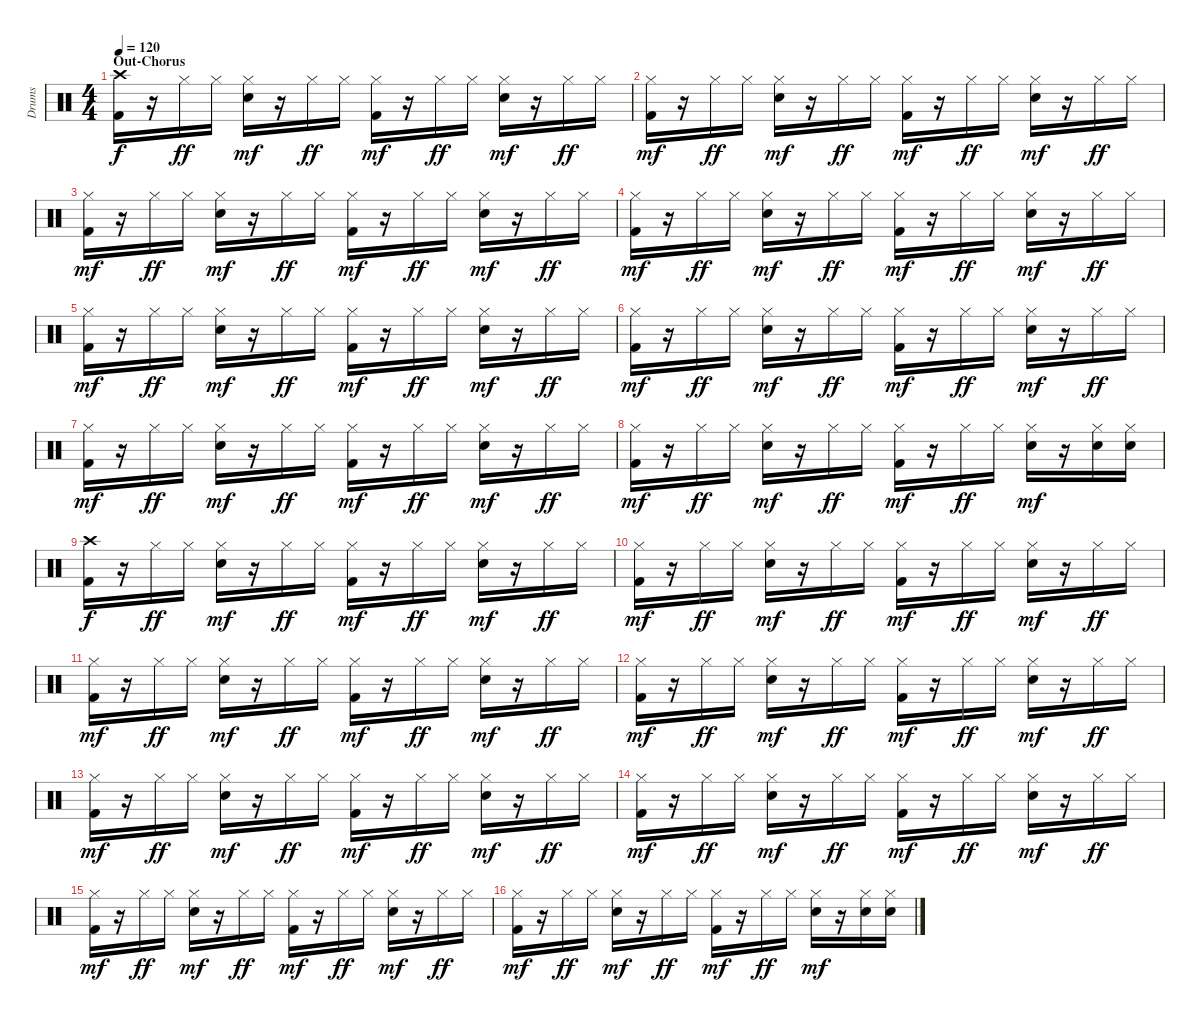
\track ("Drums" "Drums") {instrument percussion}
\staff {score}
\articulation defaults
\ts (4 4)
\section ("" "Out-Chorus")
\tempo 120
\clef neutral
\ks c
("Crash high (hit)" "Kick (hit) 2").16{dy f} r.16 "Hi-Hat (closed)".16{dy ff} "Hi-Hat (closed)".16 ("Hi-Hat (closed)" "Electric Snare (hit)").16{dy mf} r.16 "Hi-Hat (closed)".16{dy ff} "Hi-Hat (closed)".16 ("Hi-Hat (closed)" "Kick (hit) 2").16{dy mf} r.16 "Hi-Hat (closed)".16{dy ff} "Hi-Hat (closed)".16 ("Hi-Hat (closed)" "Electric Snare (hit)").16{dy mf} r.16 "Hi-Hat (closed)".16{dy ff} "Hi-Hat (closed)".16 |
("Hi-Hat (closed)" "Kick (hit) 2").16{dy mf} r.16 "Hi-Hat (closed)".16{dy ff} "Hi-Hat (closed)".16 ("Hi-Hat (closed)" "Electric Snare (hit)").16{dy mf} r.16 "Hi-Hat (closed)".16{dy ff} "Hi-Hat (closed)".16 ("Hi-Hat (closed)" "Kick (hit) 2").16{dy mf} r.16 "Hi-Hat (closed)".16{dy ff} "Hi-Hat (closed)".16 ("Hi-Hat (closed)" "Electric Snare (hit)").16{dy mf} r.16 "Hi-Hat (closed)".16{dy ff} "Hi-Hat (closed)".16 |
("Hi-Hat (closed)" "Kick (hit) 2").16{dy mf} r.16 "Hi-Hat (closed)".16{dy ff} "Hi-Hat (closed)".16 ("Hi-Hat (closed)" "Electric Snare (hit)").16{dy mf} r.16 "Hi-Hat (closed)".16{dy ff} "Hi-Hat (closed)".16 ("Hi-Hat (closed)" "Kick (hit) 2").16{dy mf} r.16 "Hi-Hat (closed)".16{dy ff} "Hi-Hat (closed)".16 ("Hi-Hat (closed)" "Electric Snare (hit)").16{dy mf} r.16 "Hi-Hat (closed)".16{dy ff} "Hi-Hat (closed)".16 |
("Hi-Hat (closed)" "Kick (hit) 2").16{dy mf} r.16 "Hi-Hat (closed)".16{dy ff} "Hi-Hat (closed)".16 ("Hi-Hat (closed)" "Electric Snare (hit)").16{dy mf} r.16 "Hi-Hat (closed)".16{dy ff} "Hi-Hat (closed)".16 ("Hi-Hat (closed)" "Kick (hit) 2").16{dy mf} r.16 "Hi-Hat (closed)".16{dy ff} "Hi-Hat (closed)".16 ("Hi-Hat (closed)" "Electric Snare (hit)").16{dy mf} r.16 "Hi-Hat (closed)".16{dy ff} "Hi-Hat (closed)".16 |
("Hi-Hat (closed)" "Kick (hit) 2").16{dy mf} r.16 "Hi-Hat (closed)".16{dy ff} "Hi-Hat (closed)".16 ("Hi-Hat (closed)" "Electric Snare (hit)").16{dy mf} r.16 "Hi-Hat (closed)".16{dy ff} "Hi-Hat (closed)".16 ("Hi-Hat (closed)" "Kick (hit) 2").16{dy mf} r.16 "Hi-Hat (closed)".16{dy ff} "Hi-Hat (closed)".16 ("Hi-Hat (closed)" "Electric Snare (hit)").16{dy mf} r.16 "Hi-Hat (closed)".16{dy ff} "Hi-Hat (closed)".16 |
("Hi-Hat (closed)" "Kick (hit) 2").16{dy mf} r.16 "Hi-Hat (closed)".16{dy ff} "Hi-Hat (closed)".16 ("Hi-Hat (closed)" "Electric Snare (hit)").16{dy mf} r.16 "Hi-Hat (closed)".16{dy ff} "Hi-Hat (closed)".16 ("Hi-Hat (closed)" "Kick (hit) 2").16{dy mf} r.16 "Hi-Hat (closed)".16{dy ff} "Hi-Hat (closed)".16 ("Hi-Hat (closed)" "Electric Snare (hit)").16{dy mf} r.16 "Hi-Hat (closed)".16{dy ff} "Hi-Hat (closed)".16 |
("Hi-Hat (closed)" "Kick (hit) 2").16{dy mf} r.16 "Hi-Hat (closed)".16{dy ff} "Hi-Hat (closed)".16 ("Hi-Hat (closed)" "Electric Snare (hit)").16{dy mf} r.16 "Hi-Hat (closed)".16{dy ff} "Hi-Hat (closed)".16 ("Hi-Hat (closed)" "Kick (hit) 2").16{dy mf} r.16 "Hi-Hat (closed)".16{dy ff} "Hi-Hat (closed)".16 ("Hi-Hat (closed)" "Electric Snare (hit)").16{dy mf} r.16 "Hi-Hat (closed)".16{dy ff} "Hi-Hat (closed)".16 |
("Hi-Hat (closed)" "Kick (hit) 2").16{dy mf} r.16 "Hi-Hat (closed)".16{dy ff} "Hi-Hat (closed)".16 ("Hi-Hat (closed)" "Electric Snare (hit)").16{dy mf} r.16 "Hi-Hat (closed)".16{dy ff} "Hi-Hat (closed)".16 ("Hi-Hat (closed)" "Kick (hit) 2").16{dy mf} r.16 "Hi-Hat (closed)".16{dy ff} "Hi-Hat (closed)".16 ("Hi-Hat (closed)" "Electric Snare (hit)").16{dy mf} r.16 ("Hi-Hat (closed)" "Electric Snare (hit)").16 ("Hi-Hat (closed)" "Electric Snare (hit)").16 |
("Crash high (hit)" "Kick (hit) 2").16{dy f} r.16 "Hi-Hat (closed)".16{dy ff} "Hi-Hat (closed)".16 ("Hi-Hat (closed)" "Electric Snare (hit)").16{dy mf} r.16 "Hi-Hat (closed)".16{dy ff} "Hi-Hat (closed)".16 ("Hi-Hat (closed)" "Kick (hit) 2").16{dy mf} r.16 "Hi-Hat (closed)".16{dy ff} "Hi-Hat (closed)".16 ("Hi-Hat (closed)" "Electric Snare (hit)").16{dy mf} r.16 "Hi-Hat (closed)".16{dy ff} "Hi-Hat (closed)".16 |
("Hi-Hat (closed)" "Kick (hit) 2").16{dy mf} r.16 "Hi-Hat (closed)".16{dy ff} "Hi-Hat (closed)".16 ("Hi-Hat (closed)" "Electric Snare (hit)").16{dy mf} r.16 "Hi-Hat (closed)".16{dy ff} "Hi-Hat (closed)".16 ("Hi-Hat (closed)" "Kick (hit) 2").16{dy mf} r.16 "Hi-Hat (closed)".16{dy ff} "Hi-Hat (closed)".16 ("Hi-Hat (closed)" "Electric Snare (hit)").16{dy mf} r.16 "Hi-Hat (closed)".16{dy ff} "Hi-Hat (closed)".16 |
("Hi-Hat (closed)" "Kick (hit) 2").16{dy mf} r.16 "Hi-Hat (closed)".16{dy ff} "Hi-Hat (closed)".16 ("Hi-Hat (closed)" "Electric Snare (hit)").16{dy mf} r.16 "Hi-Hat (closed)".16{dy ff} "Hi-Hat (closed)".16 ("Hi-Hat (closed)" "Kick (hit) 2").16{dy mf} r.16 "Hi-Hat (closed)".16{dy ff} "Hi-Hat (closed)".16 ("Hi-Hat (closed)" "Electric Snare (hit)").16{dy mf} r.16 "Hi-Hat (closed)".16{dy ff} "Hi-Hat (closed)".16 |
("Hi-Hat (closed)" "Kick (hit) 2").16{dy mf} r.16 "Hi-Hat (closed)".16{dy ff} "Hi-Hat (closed)".16 ("Hi-Hat (closed)" "Electric Snare (hit)").16{dy mf} r.16 "Hi-Hat (closed)".16{dy ff} "Hi-Hat (closed)".16 ("Hi-Hat (closed)" "Kick (hit) 2").16{dy mf} r.16 "Hi-Hat (closed)".16{dy ff} "Hi-Hat (closed)".16 ("Hi-Hat (closed)" "Electric Snare (hit)").16{dy mf} r.16 "Hi-Hat (closed)".16{dy ff} "Hi-Hat (closed)".16 |
("Hi-Hat (closed)" "Kick (hit) 2").16{dy mf} r.16 "Hi-Hat (closed)".16{dy ff} "Hi-Hat (closed)".16 ("Hi-Hat (closed)" "Electric Snare (hit)").16{dy mf} r.16 "Hi-Hat (closed)".16{dy ff} "Hi-Hat (closed)".16 ("Hi-Hat (closed)" "Kick (hit) 2").16{dy mf} r.16 "Hi-Hat (closed)".16{dy ff} "Hi-Hat (closed)".16 ("Hi-Hat (closed)" "Electric Snare (hit)").16{dy mf} r.16 "Hi-Hat (closed)".16{dy ff} "Hi-Hat (closed)".16 |
("Hi-Hat (closed)" "Kick (hit) 2").16{dy mf} r.16 "Hi-Hat (closed)".16{dy ff} "Hi-Hat (closed)".16 ("Hi-Hat (closed)" "Electric Snare (hit)").16{dy mf} r.16 "Hi-Hat (closed)".16{dy ff} "Hi-Hat (closed)".16 ("Hi-Hat (closed)" "Kick (hit) 2").16{dy mf} r.16 "Hi-Hat (closed)".16{dy ff} "Hi-Hat (closed)".16 ("Hi-Hat (closed)" "Electric Snare (hit)").16{dy mf} r.16 "Hi-Hat (closed)".16{dy ff} "Hi-Hat (closed)".16 |
("Hi-Hat (closed)" "Kick (hit) 2").16{dy mf} r.16 "Hi-Hat (closed)".16{dy ff} "Hi-Hat (closed)".16 ("Hi-Hat (closed)" "Electric Snare (hit)").16{dy mf} r.16 "Hi-Hat (closed)".16{dy ff} "Hi-Hat (closed)".16 ("Hi-Hat (closed)" "Kick (hit) 2").16{dy mf} r.16 "Hi-Hat (closed)".16{dy ff} "Hi-Hat (closed)".16 ("Hi-Hat (closed)" "Electric Snare (hit)").16{dy mf} r.16 "Hi-Hat (closed)".16{dy ff} "Hi-Hat (closed)".16 |
("Hi-Hat (closed)" "Kick (hit) 2").16{dy mf} r.16 "Hi-Hat (closed)".16{dy ff} "Hi-Hat (closed)".16 ("Hi-Hat (closed)" "Electric Snare (hit)").16{dy mf} r.16 "Hi-Hat (closed)".16{dy ff} "Hi-Hat (closed)".16 ("Hi-Hat (closed)" "Kick (hit) 2").16{dy mf} r.16 "Hi-Hat (closed)".16{dy ff} "Hi-Hat (closed)".16 ("Hi-Hat (closed)" "Electric Snare (hit)").16{dy mf} r.16 ("Hi-Hat (closed)" "Electric Snare (hit)").16 ("Hi-Hat (closed)" "Electric Snare (hit)").16
